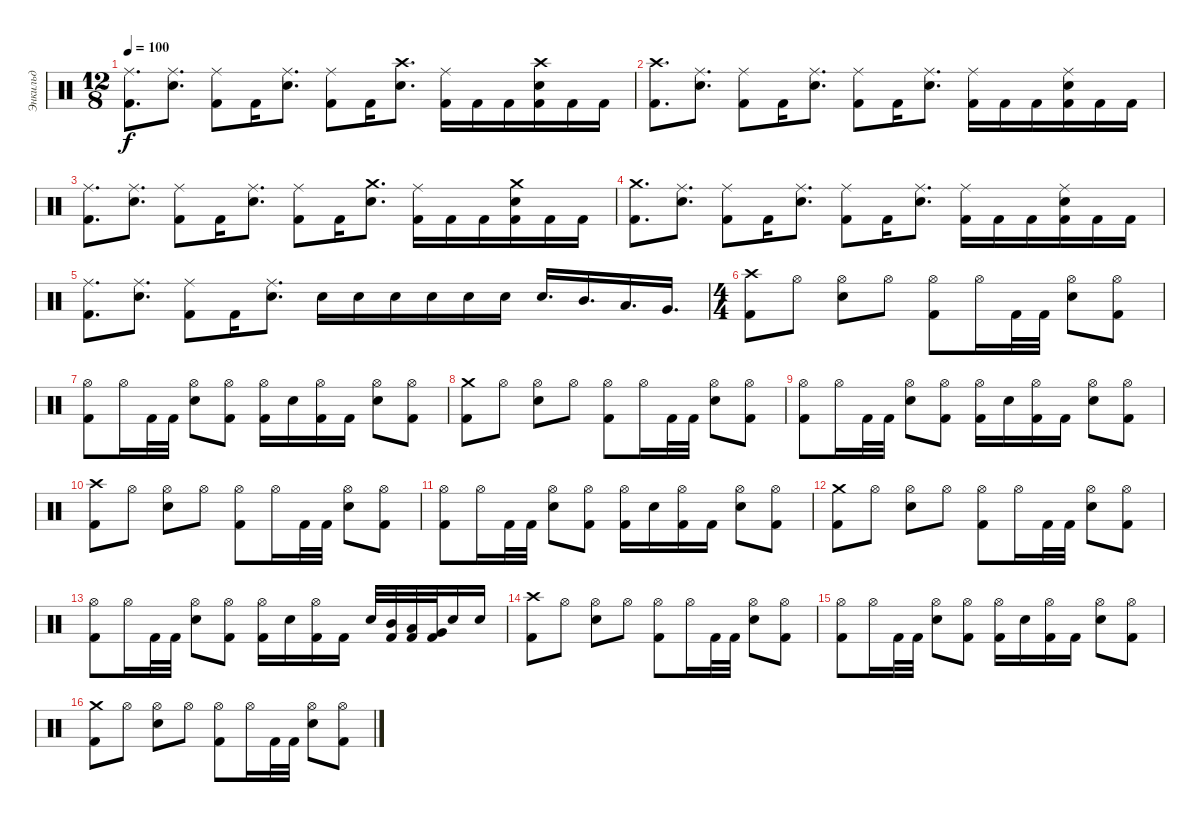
\track ("Энкильд" "Энкильд") {instrument percussion}
\staff {score}
\articulation defaults
\ts (12 8)
\tempo 100
\clef neutral
\ks c
("Ride (middle)" "Kick (hit) 2").8{d dy f} ("Ride (middle)" "Snare (hit) 2").8{d} ("Ride (middle)" "Kick (hit) 2").8 "Kick (hit) 2".16 ("Ride (middle)" "Snare (hit) 2").8{d} ("Ride (middle)" "Kick (hit) 2").8 "Kick (hit) 2".16 ("Crash high (hit)" "Snare (hit) 2").8{d} ("Ride (middle)" "Kick (hit) 2").16 "Kick (hit) 2".16 "Kick (hit) 2".16 ("Crash high (hit)" "Kick (hit) 2" "Snare (hit) 2").16 "Kick (hit) 2".16 "Kick (hit) 2".16 |
("Crash high (hit)" "Kick (hit) 2").8{d} ("Ride (middle)" "Snare (hit) 2").8{d} ("Ride (middle)" "Kick (hit) 2").8 "Kick (hit) 2".16 ("Ride (middle)" "Snare (hit) 2").8{d} ("Ride (middle)" "Kick (hit) 2").8 "Kick (hit) 2".16 ("Ride (middle)" "Snare (hit) 2").8{d} ("Ride (middle)" "Kick (hit) 2").16 "Kick (hit) 2".16 "Kick (hit) 2".16 ("Ride (middle)" "Kick (hit) 2" "Snare (hit) 2").16 "Kick (hit) 2".16 "Kick (hit) 2".16 |
("Ride (middle)" "Kick (hit) 2").8{d} ("Ride (middle)" "Snare (hit) 2").8{d} ("Ride (middle)" "Kick (hit) 2").8 "Kick (hit) 2".16 ("Ride (middle)" "Snare (hit) 2").8{d} ("Ride (middle)" "Kick (hit) 2").8 "Kick (hit) 2".16 ("Crash medium (hit)" "Snare (hit) 2").8{d} ("Ride (middle)" "Kick (hit) 2").16 "Kick (hit) 2".16 "Kick (hit) 2".16 ("Crash medium (hit)" "Kick (hit) 2" "Snare (hit) 2").16 "Kick (hit) 2".16 "Kick (hit) 2".16 |
("Crash medium (hit)" "Kick (hit) 2").8{d} ("Ride (middle)" "Snare (hit) 2").8{d} ("Ride (middle)" "Kick (hit) 2").8 "Kick (hit) 2".16 ("Ride (middle)" "Snare (hit) 2").8{d} ("Ride (middle)" "Kick (hit) 2").8 "Kick (hit) 2".16 ("Ride (middle)" "Snare (hit) 2").8{d} ("Ride (middle)" "Kick (hit) 2").16 "Kick (hit) 2".16 "Kick (hit) 2".16 ("Ride (middle)" "Kick (hit) 2" "Snare (hit) 2").16 "Kick (hit) 2".16 "Kick (hit) 2".16 |
("Ride (middle)" "Kick (hit) 2").8{d} ("Ride (middle)" "Snare (hit) 2").8{d} ("Ride (middle)" "Kick (hit) 2").8 "Kick (hit) 2".16 ("Ride (middle)" "Snare (hit) 2").8{d} "Snare (hit) 2".16 "Snare (hit) 2".16 "Snare (hit) 2".16 "Snare (hit) 2".16 "Snare (hit) 2".16 "Snare (hit) 2".16 "Snare (hit) 2".16{d} "Mid Tom (hit)".16{d} "Low Tom (hit)".16{d} "Very Low Tom (hit)".16{d} |
\ts (4 4)
("Kick (hit) 2" "Crash high (hit)").8 "Hi-Hat (open)".8 ("Snare (hit) 2" "Hi-Hat (open)").8 "Hi-Hat (open)".8 ("Kick (hit) 2" "Hi-Hat (open)").8 "Hi-Hat (open)".16 "Kick (hit) 2".32 "Kick (hit) 2".32 ("Snare (hit) 2" "Hi-Hat (open)").8 ("Hi-Hat (open)" "Kick (hit) 2").8 |
("Hi-Hat (open)" "Kick (hit) 2").8 "Hi-Hat (open)".16 "Kick (hit) 2".32 "Kick (hit) 2".32 ("Hi-Hat (open)" "Snare (hit) 2").8 ("Hi-Hat (open)" "Kick (hit) 2").8 ("Kick (hit) 2" "Hi-Hat (open)").16 "Snare (hit) 2".16 ("Hi-Hat (open)" "Kick (hit) 2").16 "Kick (hit) 2".16 ("Hi-Hat (open)" "Snare (hit) 2").8 ("Hi-Hat (open)" "Kick (hit) 2").8 |
("Kick (hit) 2" "Crash medium (hit)").8 "Hi-Hat (open)".8 ("Snare (hit) 2" "Hi-Hat (open)").8 "Hi-Hat (open)".8 ("Kick (hit) 2" "Hi-Hat (open)").8 "Hi-Hat (open)".16 "Kick (hit) 2".32 "Kick (hit) 2".32 ("Snare (hit) 2" "Hi-Hat (open)").8 ("Hi-Hat (open)" "Kick (hit) 2").8 |
("Hi-Hat (open)" "Kick (hit) 2").8 "Hi-Hat (open)".16 "Kick (hit) 2".32 "Kick (hit) 2".32 ("Hi-Hat (open)" "Snare (hit) 2").8 ("Hi-Hat (open)" "Kick (hit) 2").8 ("Kick (hit) 2" "Hi-Hat (open)").16 "Snare (hit) 2".16 ("Hi-Hat (open)" "Kick (hit) 2").16 "Kick (hit) 2".16 ("Hi-Hat (open)" "Snare (hit) 2").8 ("Hi-Hat (open)" "Kick (hit) 2").8 |
("Kick (hit) 2" "Crash high (hit)").8 "Hi-Hat (open)".8 ("Snare (hit) 2" "Hi-Hat (open)").8 "Hi-Hat (open)".8 ("Kick (hit) 2" "Hi-Hat (open)").8 "Hi-Hat (open)".16 "Kick (hit) 2".32 "Kick (hit) 2".32 ("Snare (hit) 2" "Hi-Hat (open)").8 ("Hi-Hat (open)" "Kick (hit) 2").8 |
("Hi-Hat (open)" "Kick (hit) 2").8 "Hi-Hat (open)".16 "Kick (hit) 2".32 "Kick (hit) 2".32 ("Hi-Hat (open)" "Snare (hit) 2").8 ("Hi-Hat (open)" "Kick (hit) 2").8 ("Kick (hit) 2" "Hi-Hat (open)").16 "Snare (hit) 2".16 ("Hi-Hat (open)" "Kick (hit) 2").16 "Kick (hit) 2".16 ("Hi-Hat (open)" "Snare (hit) 2").8 ("Hi-Hat (open)" "Kick (hit) 2").8 |
("Kick (hit) 2" "Crash medium (hit)").8 "Hi-Hat (open)".8 ("Snare (hit) 2" "Hi-Hat (open)").8 "Hi-Hat (open)".8 ("Kick (hit) 2" "Hi-Hat (open)").8 "Hi-Hat (open)".16 "Kick (hit) 2".32 "Kick (hit) 2".32 ("Snare (hit) 2" "Hi-Hat (open)").8 ("Hi-Hat (open)" "Kick (hit) 2").8 |
("Hi-Hat (open)" "Kick (hit) 2").8 "Hi-Hat (open)".16 "Kick (hit) 2".32 "Kick (hit) 2".32 ("Hi-Hat (open)" "Snare (hit) 2").8 ("Hi-Hat (open)" "Kick (hit) 2").8 ("Kick (hit) 2" "Hi-Hat (open)").16 "Snare (hit) 2".16 ("Hi-Hat (open)" "Kick (hit) 2").16 "Kick (hit) 2".16 "Snare (hit) 2".32 ("Kick (hit) 2" "Mid Tom (hit)").32 ("Kick (hit) 2" "Low Tom (hit)").32 ("Kick (hit) 2" "Very Low Tom (hit)").32 "Snare (hit) 2".16 "Snare (hit) 2".16 |
("Kick (hit) 2" "Crash high (hit)").8 "Hi-Hat (open)".8 ("Snare (hit) 2" "Hi-Hat (open)").8 "Hi-Hat (open)".8 ("Kick (hit) 2" "Hi-Hat (open)").8 "Hi-Hat (open)".16 "Kick (hit) 2".32 "Kick (hit) 2".32 ("Snare (hit) 2" "Hi-Hat (open)").8 ("Hi-Hat (open)" "Kick (hit) 2").8 |
("Hi-Hat (open)" "Kick (hit) 2").8 "Hi-Hat (open)".16 "Kick (hit) 2".32 "Kick (hit) 2".32 ("Hi-Hat (open)" "Snare (hit) 2").8 ("Hi-Hat (open)" "Kick (hit) 2").8 ("Kick (hit) 2" "Hi-Hat (open)").16 "Snare (hit) 2".16 ("Hi-Hat (open)" "Kick (hit) 2").16 "Kick (hit) 2".16 ("Hi-Hat (open)" "Snare (hit) 2").8 ("Hi-Hat (open)" "Kick (hit) 2").8 |
("Kick (hit) 2" "Crash medium (hit)").8 "Hi-Hat (open)".8 ("Snare (hit) 2" "Hi-Hat (open)").8 "Hi-Hat (open)".8 ("Kick (hit) 2" "Hi-Hat (open)").8 "Hi-Hat (open)".16 "Kick (hit) 2".32 "Kick (hit) 2".32 ("Snare (hit) 2" "Hi-Hat (open)").8 ("Hi-Hat (open)" "Kick (hit) 2").8
